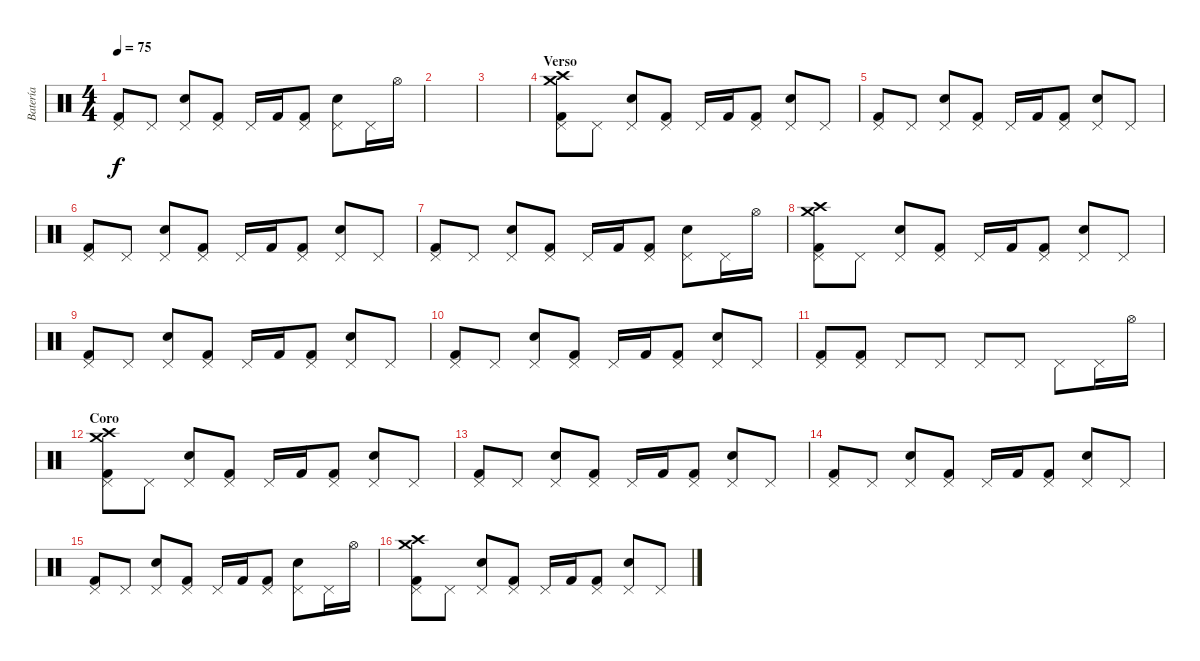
\track ("Batería" "Batería") {instrument percussion}
\staff {score}
\articulation defaults
\ts (4 4)
\tempo 75
\clef neutral
\ks c
("Pedal Hi-Hat (hit)" "Kick (hit) 2").8{dy f} "Pedal Hi-Hat (hit)".8 ("Pedal Hi-Hat (hit)" "Electric Snare (hit)").8 ("Pedal Hi-Hat (hit)" "Kick (hit) 2").8 "Pedal Hi-Hat (hit)".16 "Kick (hit) 2".16 ("Pedal Hi-Hat (hit)" "Kick (hit) 2").8 ("Pedal Hi-Hat (hit)" "Electric Snare (hit)").8 "Pedal Hi-Hat (hit)".16 "Hi-Hat (open)".16 |
|
|
\section ("" "Verso")
("Crash high (hit)" "Crash medium (hit)" "Pedal Hi-Hat (hit)" "Kick (hit) 2").8 "Pedal Hi-Hat (hit)".8 ("Pedal Hi-Hat (hit)" "Electric Snare (hit)").8 ("Pedal Hi-Hat (hit)" "Kick (hit) 2").8 "Pedal Hi-Hat (hit)".16 "Kick (hit) 2".16 ("Pedal Hi-Hat (hit)" "Kick (hit) 2").8 ("Pedal Hi-Hat (hit)" "Electric Snare (hit)").8 "Pedal Hi-Hat (hit)".8 |
("Pedal Hi-Hat (hit)" "Kick (hit) 2").8 "Pedal Hi-Hat (hit)".8 ("Pedal Hi-Hat (hit)" "Electric Snare (hit)").8 ("Pedal Hi-Hat (hit)" "Kick (hit) 2").8 "Pedal Hi-Hat (hit)".16 "Kick (hit) 2".16 ("Pedal Hi-Hat (hit)" "Kick (hit) 2").8 ("Pedal Hi-Hat (hit)" "Electric Snare (hit)").8 "Pedal Hi-Hat (hit)".8 |
("Pedal Hi-Hat (hit)" "Kick (hit) 2").8 "Pedal Hi-Hat (hit)".8 ("Pedal Hi-Hat (hit)" "Electric Snare (hit)").8 ("Pedal Hi-Hat (hit)" "Kick (hit) 2").8 "Pedal Hi-Hat (hit)".16 "Kick (hit) 2".16 ("Pedal Hi-Hat (hit)" "Kick (hit) 2").8 ("Pedal Hi-Hat (hit)" "Electric Snare (hit)").8 "Pedal Hi-Hat (hit)".8 |
("Pedal Hi-Hat (hit)" "Kick (hit) 2").8 "Pedal Hi-Hat (hit)".8 ("Pedal Hi-Hat (hit)" "Electric Snare (hit)").8 ("Pedal Hi-Hat (hit)" "Kick (hit) 2").8 "Pedal Hi-Hat (hit)".16 "Kick (hit) 2".16 ("Pedal Hi-Hat (hit)" "Kick (hit) 2").8 ("Pedal Hi-Hat (hit)" "Electric Snare (hit)").8 "Pedal Hi-Hat (hit)".16 "Hi-Hat (open)".16 |
("Crash high (hit)" "Crash medium (hit)" "Pedal Hi-Hat (hit)" "Kick (hit) 2").8 "Pedal Hi-Hat (hit)".8 ("Pedal Hi-Hat (hit)" "Electric Snare (hit)").8 ("Pedal Hi-Hat (hit)" "Kick (hit) 2").8 "Pedal Hi-Hat (hit)".16 "Kick (hit) 2".16 ("Pedal Hi-Hat (hit)" "Kick (hit) 2").8 ("Pedal Hi-Hat (hit)" "Electric Snare (hit)").8 "Pedal Hi-Hat (hit)".8 |
("Pedal Hi-Hat (hit)" "Kick (hit) 2").8 "Pedal Hi-Hat (hit)".8 ("Pedal Hi-Hat (hit)" "Electric Snare (hit)").8 ("Pedal Hi-Hat (hit)" "Kick (hit) 2").8 "Pedal Hi-Hat (hit)".16 "Kick (hit) 2".16 ("Pedal Hi-Hat (hit)" "Kick (hit) 2").8 ("Pedal Hi-Hat (hit)" "Electric Snare (hit)").8 "Pedal Hi-Hat (hit)".8 |
("Pedal Hi-Hat (hit)" "Kick (hit) 2").8 "Pedal Hi-Hat (hit)".8 ("Pedal Hi-Hat (hit)" "Electric Snare (hit)").8 ("Pedal Hi-Hat (hit)" "Kick (hit) 2").8 "Pedal Hi-Hat (hit)".16 "Kick (hit) 2".16 ("Pedal Hi-Hat (hit)" "Kick (hit) 2").8 ("Pedal Hi-Hat (hit)" "Electric Snare (hit)").8 "Pedal Hi-Hat (hit)".8 |
("Pedal Hi-Hat (hit)" "Kick (hit) 2").8 ("Pedal Hi-Hat (hit)" "Kick (hit) 2").8 "Pedal Hi-Hat (hit)".8 "Pedal Hi-Hat (hit)".8 "Pedal Hi-Hat (hit)".8 "Pedal Hi-Hat (hit)".8 "Pedal Hi-Hat (hit)".8 "Pedal Hi-Hat (hit)".16 "Hi-Hat (open)".16 |
\section ("" "Coro")
("Crash high (hit)" "Crash medium (hit)" "Pedal Hi-Hat (hit)" "Kick (hit) 2").8 "Pedal Hi-Hat (hit)".8 ("Pedal Hi-Hat (hit)" "Electric Snare (hit)").8 ("Pedal Hi-Hat (hit)" "Kick (hit) 2").8 "Pedal Hi-Hat (hit)".16 "Kick (hit) 2".16 ("Pedal Hi-Hat (hit)" "Kick (hit) 2").8 ("Pedal Hi-Hat (hit)" "Electric Snare (hit)").8 "Pedal Hi-Hat (hit)".8 |
("Pedal Hi-Hat (hit)" "Kick (hit) 2").8 "Pedal Hi-Hat (hit)".8 ("Pedal Hi-Hat (hit)" "Electric Snare (hit)").8 ("Pedal Hi-Hat (hit)" "Kick (hit) 2").8 "Pedal Hi-Hat (hit)".16 "Kick (hit) 2".16 ("Pedal Hi-Hat (hit)" "Kick (hit) 2").8 ("Pedal Hi-Hat (hit)" "Electric Snare (hit)").8 "Pedal Hi-Hat (hit)".8 |
("Pedal Hi-Hat (hit)" "Kick (hit) 2").8 "Pedal Hi-Hat (hit)".8 ("Pedal Hi-Hat (hit)" "Electric Snare (hit)").8 ("Pedal Hi-Hat (hit)" "Kick (hit) 2").8 "Pedal Hi-Hat (hit)".16 "Kick (hit) 2".16 ("Pedal Hi-Hat (hit)" "Kick (hit) 2").8 ("Pedal Hi-Hat (hit)" "Electric Snare (hit)").8 "Pedal Hi-Hat (hit)".8 |
("Pedal Hi-Hat (hit)" "Kick (hit) 2").8 "Pedal Hi-Hat (hit)".8 ("Pedal Hi-Hat (hit)" "Electric Snare (hit)").8 ("Pedal Hi-Hat (hit)" "Kick (hit) 2").8 "Pedal Hi-Hat (hit)".16 "Kick (hit) 2".16 ("Pedal Hi-Hat (hit)" "Kick (hit) 2").8 ("Pedal Hi-Hat (hit)" "Electric Snare (hit)").8 "Pedal Hi-Hat (hit)".16 "Hi-Hat (open)".16 |
("Crash high (hit)" "Crash medium (hit)" "Pedal Hi-Hat (hit)" "Kick (hit) 2").8 "Pedal Hi-Hat (hit)".8 ("Pedal Hi-Hat (hit)" "Electric Snare (hit)").8 ("Pedal Hi-Hat (hit)" "Kick (hit) 2").8 "Pedal Hi-Hat (hit)".16 "Kick (hit) 2".16 ("Pedal Hi-Hat (hit)" "Kick (hit) 2").8 ("Pedal Hi-Hat (hit)" "Electric Snare (hit)").8 "Pedal Hi-Hat (hit)".8
